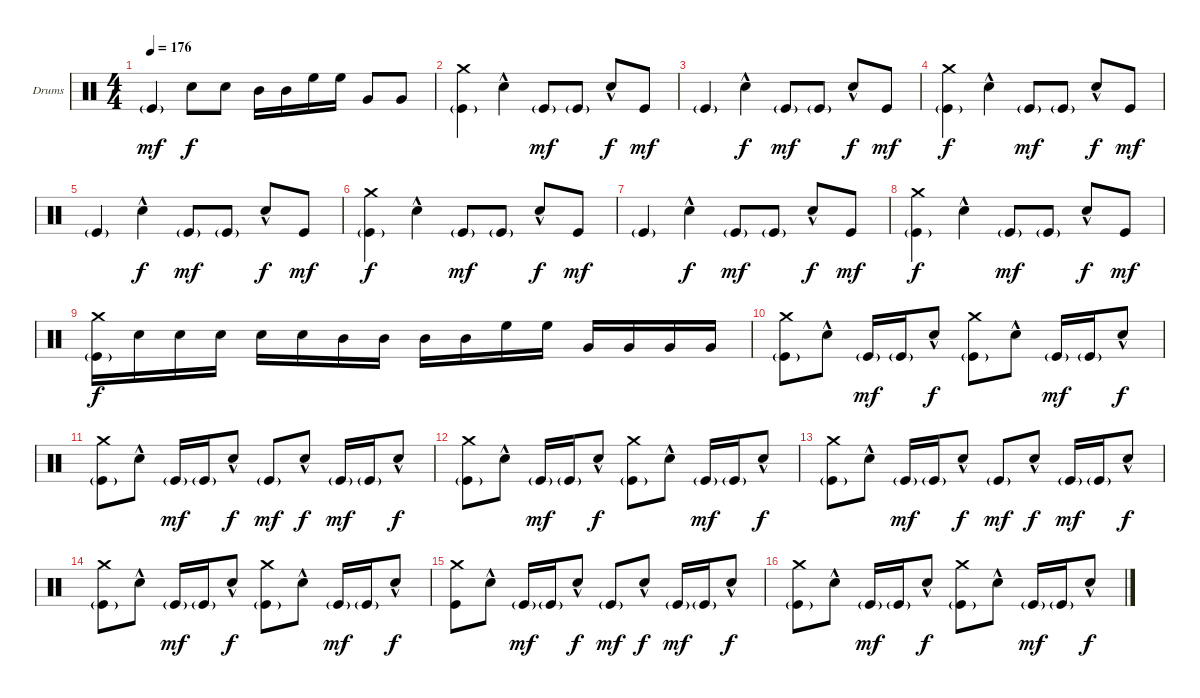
\defaultSystemsLayout 4
\bracketExtendMode groupsimilarinstruments
\firstSystemTrackNameOrientation horizontal
\otherSystemsTrackNameOrientation horizontal
\track ("Drums" "Drums") {instrument percussion}
\staff {score}
\articulation defaults
\ts (4 4)
\tempo 176
\clef neutral
\ks c "Kick (hit)"{g}.4{dy mf} "Snare (hit) 2".8{dy f} "Snare (hit) 2".8 "Mid Tom (hit)".16 "Mid Tom (hit)".16 "High Floor Tom (hit)".16 "High Floor Tom (hit)".16 "Very Low Tom (hit)".8 "Very Low Tom (hit)".8
|
("Crash medium (hit)" "Kick (hit)"{g}).4 "Snare (hit) 2"{hac}.4 "Kick (hit)"{g}.8{dy mf} "Kick (hit)"{g}.8 "Snare (hit) 2"{hac}.8{dy f} "Kick (hit)".8{dy mf} |
"Kick (hit)"{g}.4 "Snare (hit) 2"{hac}.4{dy f} "Kick (hit)"{g}.8{dy mf} "Kick (hit)"{g}.8 "Snare (hit) 2"{hac}.8{dy f} "Kick (hit)".8{dy mf} |
("Crash medium (hit)" "Kick (hit)"{g}).4{dy f} "Snare (hit) 2"{hac}.4 "Kick (hit)"{g}.8{dy mf} "Kick (hit)"{g}.8 "Snare (hit) 2"{hac}.8{dy f} "Kick (hit)".8{dy mf} |
"Kick (hit)"{g}.4 "Snare (hit) 2"{hac}.4{dy f} "Kick (hit)"{g}.8{dy mf} "Kick (hit)"{g}.8 "Snare (hit) 2"{hac}.8{dy f} "Kick (hit)".8{dy mf} |
("Crash medium (hit)" "Kick (hit)"{g}).4{dy f} "Snare (hit) 2"{hac}.4 "Kick (hit)"{g}.8{dy mf} "Kick (hit)"{g}.8 "Snare (hit) 2"{hac}.8{dy f} "Kick (hit)".8{dy mf} |
"Kick (hit)"{g}.4 "Snare (hit) 2"{hac}.4{dy f} "Kick (hit)"{g}.8{dy mf} "Kick (hit)"{g}.8 "Snare (hit) 2"{hac}.8{dy f} "Kick (hit)".8{dy mf} |
("Crash medium (hit)" "Kick (hit)"{g}).4{dy f} "Snare (hit) 2"{hac}.4 "Kick (hit)"{g}.8{dy mf} "Kick (hit)"{g}.8 "Snare (hit) 2"{hac}.8{dy f} "Kick (hit)".8{dy mf} |
("Crash medium (hit)" "Kick (hit)"{g}).16{dy f} "Snare (hit) 2".16 "Snare (hit) 2".16 "Snare (hit) 2".16 "Snare (hit) 2".16 "Snare (hit) 2".16 "Mid Tom (hit)".16 "Mid Tom (hit)".16 "Mid Tom (hit)".16 "Mid Tom (hit)".16 "High Floor Tom (hit)".16 "High Floor Tom (hit)".16 "Very Low Tom (hit)".16 "Very Low Tom (hit)".16 "Very Low Tom (hit)".16 "Very Low Tom (hit)".16 |
("Crash medium (hit)" "Kick (hit)"{g}).8 "Snare (hit) 2"{hac}.8 "Kick (hit)"{g}.16{dy mf} "Kick (hit)"{g}.16 "Snare (hit) 2"{hac}.8{dy f} ("Crash medium (hit)" "Kick (hit)"{g}).8 "Snare (hit) 2"{hac}.8 "Kick (hit)"{g}.16{dy mf} "Kick (hit)"{g}.16 "Snare (hit) 2"{hac}.8{dy f} |
("Crash medium (hit)" "Kick (hit)"{g}).8 "Snare (hit) 2"{hac}.8 "Kick (hit)"{g}.16{dy mf} "Kick (hit)"{g}.16 "Snare (hit) 2"{hac}.8{dy f} "Kick (hit)"{g}.8{dy mf} "Snare (hit) 2"{hac}.8{dy f} "Kick (hit)"{g}.16{dy mf} "Kick (hit)"{g}.16 "Snare (hit) 2"{hac}.8{dy f} |
("Crash medium (hit)" "Kick (hit)"{g}).8 "Snare (hit) 2"{hac}.8 "Kick (hit)"{g}.16{dy mf} "Kick (hit)"{g}.16 "Snare (hit) 2"{hac}.8{dy f} ("Crash medium (hit)" "Kick (hit)"{g}).8 "Snare (hit) 2"{hac}.8 "Kick (hit)"{g}.16{dy mf} "Kick (hit)"{g}.16 "Snare (hit) 2"{hac}.8{dy f} |
("Crash medium (hit)" "Kick (hit)"{g}).8 "Snare (hit) 2"{hac}.8 "Kick (hit)"{g}.16{dy mf} "Kick (hit)"{g}.16 "Snare (hit) 2"{hac}.8{dy f} "Kick (hit)"{g}.8{dy mf} "Snare (hit) 2"{hac}.8{dy f} "Kick (hit)"{g}.16{dy mf} "Kick (hit)"{g}.16 "Snare (hit) 2"{hac}.8{dy f} |
("Crash medium (hit)" "Kick (hit)"{g}).8 "Snare (hit) 2"{hac}.8 "Kick (hit)"{g}.16{dy mf} "Kick (hit)"{g}.16 "Snare (hit) 2"{hac}.8{dy f} ("Crash medium (hit)" "Kick (hit)"{g}).8 "Snare (hit) 2"{hac}.8 "Kick (hit)"{g}.16{dy mf} "Kick (hit)"{g}.16 "Snare (hit) 2"{hac}.8{dy f} |
("Crash medium (hit)" "Kick (hit)").8 "Snare (hit) 2"{hac}.8 "Kick (hit)"{g}.16{dy mf} "Kick (hit)"{g}.16 "Snare (hit) 2"{hac}.8{dy f} "Kick (hit)"{g}.8{dy mf} "Snare (hit) 2"{hac}.8{dy f} "Kick (hit)"{g}.16{dy mf} "Kick (hit)"{g}.16 "Snare (hit) 2"{hac}.8{dy f} |
("Crash medium (hit)" "Kick (hit)"{g}).8 "Snare (hit) 2"{hac}.8 "Kick (hit)"{g}.16{dy mf} "Kick (hit)"{g}.16 "Snare (hit) 2"{hac}.8{dy f} ("Crash medium (hit)" "Kick (hit)"{g}).8 "Snare (hit) 2"{hac}.8 "Kick (hit)"{g}.16{dy mf} "Kick (hit)"{g}.16 "Snare (hit) 2"{hac}.8{dy f}
